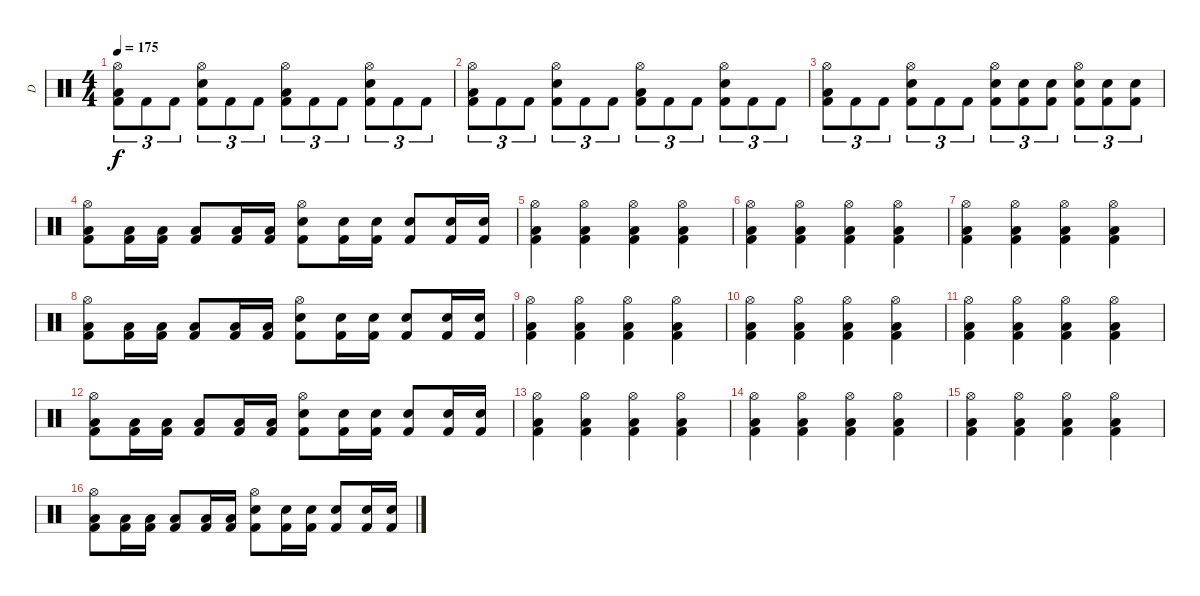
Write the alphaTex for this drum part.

\track ("D" "D") {instrument percussion}
\staff {score}
\articulation defaults
\ts (4 4)
\tempo 175
\clef neutral
\ks c
("Hi-Hat (open)" "Low Floor Tom (hit)" "Kick (hit) 2").8{tu (3 2) dy f} "Kick (hit) 2".8{tu (3 2)} "Kick (hit) 2".8{tu (3 2)} ("Hi-Hat (open)" "Electric Snare (hit)" "Kick (hit) 2").8{tu (3 2)} "Kick (hit) 2".8{tu (3 2)} "Kick (hit) 2".8{tu (3 2)} ("Hi-Hat (open)" "Low Floor Tom (hit)" "Kick (hit) 2").8{tu (3 2)} "Kick (hit) 2".8{tu (3 2)} "Kick (hit) 2".8{tu (3 2)} ("Hi-Hat (open)" "Electric Snare (hit)" "Kick (hit) 2").8{tu (3 2)} "Kick (hit) 2".8{tu (3 2)} "Kick (hit) 2".8{tu (3 2)} |
("Hi-Hat (open)" "Low Floor Tom (hit)" "Kick (hit) 2").8{tu (3 2)} "Kick (hit) 2".8{tu (3 2)} "Kick (hit) 2".8{tu (3 2)} ("Hi-Hat (open)" "Electric Snare (hit)" "Kick (hit) 2").8{tu (3 2)} "Kick (hit) 2".8{tu (3 2)} "Kick (hit) 2".8{tu (3 2)} ("Hi-Hat (open)" "Low Floor Tom (hit)" "Kick (hit) 2").8{tu (3 2)} "Kick (hit) 2".8{tu (3 2)} "Kick (hit) 2".8{tu (3 2)} ("Hi-Hat (open)" "Electric Snare (hit)" "Kick (hit) 2").8{tu (3 2)} "Kick (hit) 2".8{tu (3 2)} "Kick (hit) 2".8{tu (3 2)} |
("Hi-Hat (open)" "Low Floor Tom (hit)" "Kick (hit) 2").8{tu (3 2)} "Kick (hit) 2".8{tu (3 2)} "Kick (hit) 2".8{tu (3 2)} ("Hi-Hat (open)" "Electric Snare (hit)" "Kick (hit) 2").8{tu (3 2)} "Kick (hit) 2".8{tu (3 2)} "Kick (hit) 2".8{tu (3 2)} ("Hi-Hat (open)" "Electric Snare (hit)" "Kick (hit) 2").8{tu (3 2)} ("Electric Snare (hit)" "Kick (hit) 2").8{tu (3 2)} ("Snare (hit) 2" "Kick (hit) 2").8{tu (3 2)} ("Hi-Hat (open)" "Electric Snare (hit)" "Kick (hit) 2").8{tu (3 2)} ("Electric Snare (hit)" "Kick (hit) 2").8{tu (3 2)} ("Electric Snare (hit)" "Kick (hit) 2").8{tu (3 2)} |
("Hi-Hat (open)" "Low Floor Tom (hit)" "Kick (hit) 2").8 ("Low Tom (hit)" "Kick (hit) 2").16 ("Low Tom (hit)" "Kick (hit) 2").16 ("Low Tom (hit)" "Kick (hit) 2").8 ("Low Tom (hit)" "Kick (hit) 2").16 ("Low Tom (hit)" "Kick (hit) 2").16 ("Hi-Hat (open)" "Snare (hit) 2" "Kick (hit) 2").8 ("Electric Snare (hit)" "Kick (hit) 2").16 ("Electric Snare (hit)" "Kick (hit) 2").16 ("Electric Snare (hit)" "Kick (hit) 2").8 ("Electric Snare (hit)" "Kick (hit) 2").16 ("Electric Snare (hit)" "Kick (hit) 2").16 |
("Hi-Hat (open)" "Low Floor Tom (hit)" "Kick (hit) 2").4 ("Hi-Hat (open)" "Low Floor Tom (hit)" "Kick (hit) 2").4 ("Hi-Hat (open)" "Low Floor Tom (hit)" "Kick (hit) 2").4 ("Hi-Hat (open)" "Low Floor Tom (hit)" "Kick (hit) 2").4 |
("Hi-Hat (open)" "Low Floor Tom (hit)" "Kick (hit) 2").4 ("Hi-Hat (open)" "Low Floor Tom (hit)" "Kick (hit) 2").4 ("Hi-Hat (open)" "Low Floor Tom (hit)" "Kick (hit) 2").4 ("Hi-Hat (open)" "Low Floor Tom (hit)" "Kick (hit) 2").4 |
("Hi-Hat (open)" "Low Floor Tom (hit)" "Kick (hit) 2").4 ("Hi-Hat (open)" "Low Floor Tom (hit)" "Kick (hit) 2").4 ("Hi-Hat (open)" "Low Floor Tom (hit)" "Kick (hit) 2").4 ("Hi-Hat (open)" "Low Floor Tom (hit)" "Kick (hit) 2").4 |
("Hi-Hat (open)" "Low Floor Tom (hit)" "Kick (hit) 2").8 ("Low Tom (hit)" "Kick (hit) 2").16 ("Low Tom (hit)" "Kick (hit) 2").16 ("Low Tom (hit)" "Kick (hit) 2").8 ("Low Tom (hit)" "Kick (hit) 2").16 ("Low Tom (hit)" "Kick (hit) 2").16 ("Hi-Hat (open)" "Snare (hit) 2" "Kick (hit) 2").8 ("Electric Snare (hit)" "Kick (hit) 2").16 ("Electric Snare (hit)" "Kick (hit) 2").16 ("Electric Snare (hit)" "Kick (hit) 2").8 ("Electric Snare (hit)" "Kick (hit) 2").16 ("Electric Snare (hit)" "Kick (hit) 2").16 |
("Hi-Hat (open)" "Low Floor Tom (hit)" "Kick (hit) 2").4 ("Hi-Hat (open)" "Low Floor Tom (hit)" "Kick (hit) 2").4 ("Hi-Hat (open)" "Low Floor Tom (hit)" "Kick (hit) 2").4 ("Hi-Hat (open)" "Low Floor Tom (hit)" "Kick (hit) 2").4 |
("Hi-Hat (open)" "Low Floor Tom (hit)" "Kick (hit) 2").4 ("Hi-Hat (open)" "Low Floor Tom (hit)" "Kick (hit) 2").4 ("Hi-Hat (open)" "Low Floor Tom (hit)" "Kick (hit) 2").4 ("Hi-Hat (open)" "Low Floor Tom (hit)" "Kick (hit) 2").4 |
("Hi-Hat (open)" "Low Floor Tom (hit)" "Kick (hit) 2").4 ("Hi-Hat (open)" "Low Floor Tom (hit)" "Kick (hit) 2").4 ("Hi-Hat (open)" "Low Floor Tom (hit)" "Kick (hit) 2").4 ("Hi-Hat (open)" "Low Floor Tom (hit)" "Kick (hit) 2").4 |
("Hi-Hat (open)" "Low Floor Tom (hit)" "Kick (hit) 2").8 ("Low Tom (hit)" "Kick (hit) 2").16 ("Low Tom (hit)" "Kick (hit) 2").16 ("Low Tom (hit)" "Kick (hit) 2").8 ("Low Tom (hit)" "Kick (hit) 2").16 ("Low Tom (hit)" "Kick (hit) 2").16 ("Hi-Hat (open)" "Snare (hit) 2" "Kick (hit) 2").8 ("Electric Snare (hit)" "Kick (hit) 2").16 ("Electric Snare (hit)" "Kick (hit) 2").16 ("Electric Snare (hit)" "Kick (hit) 2").8 ("Electric Snare (hit)" "Kick (hit) 2").16 ("Electric Snare (hit)" "Kick (hit) 2").16 |
("Hi-Hat (open)" "Low Floor Tom (hit)" "Kick (hit) 2").4 ("Hi-Hat (open)" "Low Floor Tom (hit)" "Kick (hit) 2").4 ("Hi-Hat (open)" "Low Floor Tom (hit)" "Kick (hit) 2").4 ("Hi-Hat (open)" "Low Floor Tom (hit)" "Kick (hit) 2").4 |
("Hi-Hat (open)" "Low Floor Tom (hit)" "Kick (hit) 2").4 ("Hi-Hat (open)" "Low Floor Tom (hit)" "Kick (hit) 2").4 ("Hi-Hat (open)" "Low Floor Tom (hit)" "Kick (hit) 2").4 ("Hi-Hat (open)" "Low Floor Tom (hit)" "Kick (hit) 2").4 |
("Hi-Hat (open)" "Low Floor Tom (hit)" "Kick (hit) 2").4 ("Hi-Hat (open)" "Low Floor Tom (hit)" "Kick (hit) 2").4 ("Hi-Hat (open)" "Low Floor Tom (hit)" "Kick (hit) 2").4 ("Hi-Hat (open)" "Low Floor Tom (hit)" "Kick (hit) 2").4 |
("Hi-Hat (open)" "Low Floor Tom (hit)" "Kick (hit) 2").8 ("Low Tom (hit)" "Kick (hit) 2").16 ("Low Tom (hit)" "Kick (hit) 2").16 ("Low Tom (hit)" "Kick (hit) 2").8 ("Low Tom (hit)" "Kick (hit) 2").16 ("Low Tom (hit)" "Kick (hit) 2").16 ("Hi-Hat (open)" "Snare (hit) 2" "Kick (hit) 2").8 ("Electric Snare (hit)" "Kick (hit) 2").16 ("Electric Snare (hit)" "Kick (hit) 2").16 ("Electric Snare (hit)" "Kick (hit) 2").8 ("Electric Snare (hit)" "Kick (hit) 2").16 ("Electric Snare (hit)" "Kick (hit) 2").16
